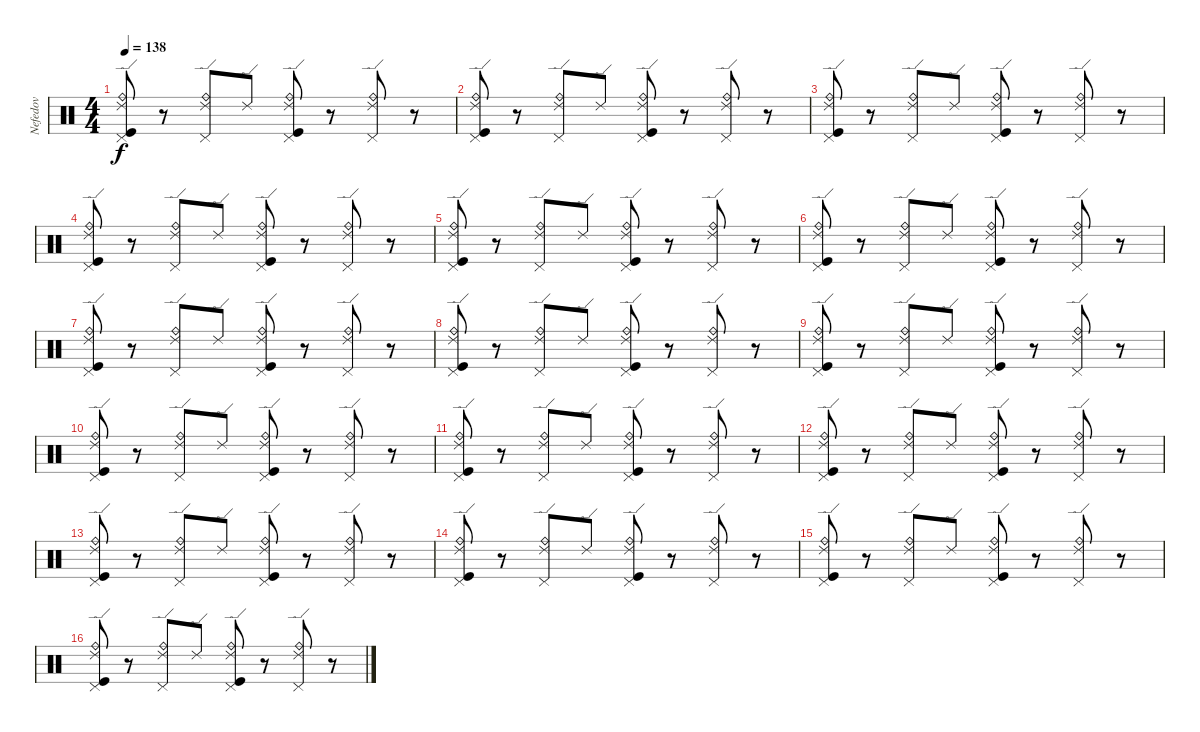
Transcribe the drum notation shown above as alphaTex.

\track ("Nefedov" "Nefedov") {instrument percussion}
\staff {score}
\articulation defaults
\ts (4 4)
\tempo 138
\clef neutral
\ks c
("Pedal Hi-Hat (hit)" "Ride (edge) 2" "Kick (hit)" "Ride (bell)").8{dy f} r.8 ("Pedal Hi-Hat (hit)" "Ride (edge) 2" "Ride (bell)").8 "Ride (edge) 2".8 ("Pedal Hi-Hat (hit)" "Ride (edge) 2" "Kick (hit)" "Ride (bell)").8 r.8 ("Pedal Hi-Hat (hit)" "Ride (edge) 2" "Ride (bell)").8 r.8 |
("Pedal Hi-Hat (hit)" "Ride (edge) 2" "Kick (hit)" "Ride (bell)").8 r.8 ("Pedal Hi-Hat (hit)" "Ride (edge) 2" "Ride (bell)").8 "Ride (edge) 2".8 ("Pedal Hi-Hat (hit)" "Ride (edge) 2" "Kick (hit)" "Ride (bell)").8 r.8 ("Pedal Hi-Hat (hit)" "Ride (edge) 2" "Ride (bell)").8 r.8 |
("Pedal Hi-Hat (hit)" "Ride (edge) 2" "Kick (hit)" "Ride (bell)").8 r.8 ("Pedal Hi-Hat (hit)" "Ride (edge) 2" "Ride (bell)").8 "Ride (edge) 2".8 ("Pedal Hi-Hat (hit)" "Ride (edge) 2" "Kick (hit)" "Ride (bell)").8 r.8 ("Pedal Hi-Hat (hit)" "Ride (edge) 2" "Ride (bell)").8 r.8 |
("Pedal Hi-Hat (hit)" "Ride (edge) 2" "Kick (hit)" "Ride (bell)").8 r.8 ("Pedal Hi-Hat (hit)" "Ride (edge) 2" "Ride (bell)").8 "Ride (edge) 2".8 ("Pedal Hi-Hat (hit)" "Ride (edge) 2" "Kick (hit)" "Ride (bell)").8 r.8 ("Pedal Hi-Hat (hit)" "Ride (edge) 2" "Ride (bell)").8 r.8 |
("Pedal Hi-Hat (hit)" "Ride (edge) 2" "Kick (hit)" "Ride (bell)").8 r.8 ("Pedal Hi-Hat (hit)" "Ride (edge) 2" "Ride (bell)").8 "Ride (edge) 2".8 ("Pedal Hi-Hat (hit)" "Ride (edge) 2" "Kick (hit)" "Ride (bell)").8 r.8 ("Pedal Hi-Hat (hit)" "Ride (edge) 2" "Ride (bell)").8 r.8 |
("Pedal Hi-Hat (hit)" "Ride (edge) 2" "Kick (hit)" "Ride (bell)").8 r.8 ("Pedal Hi-Hat (hit)" "Ride (edge) 2" "Ride (bell)").8 "Ride (edge) 2".8 ("Pedal Hi-Hat (hit)" "Ride (edge) 2" "Kick (hit)" "Ride (bell)").8 r.8 ("Pedal Hi-Hat (hit)" "Ride (edge) 2" "Ride (bell)").8 r.8 |
("Pedal Hi-Hat (hit)" "Ride (edge) 2" "Kick (hit)" "Ride (bell)").8 r.8 ("Pedal Hi-Hat (hit)" "Ride (edge) 2" "Ride (bell)").8 "Ride (edge) 2".8 ("Pedal Hi-Hat (hit)" "Ride (edge) 2" "Kick (hit)" "Ride (bell)").8 r.8 ("Pedal Hi-Hat (hit)" "Ride (edge) 2" "Ride (bell)").8 r.8 |
("Pedal Hi-Hat (hit)" "Ride (edge) 2" "Kick (hit)" "Ride (bell)").8 r.8 ("Pedal Hi-Hat (hit)" "Ride (edge) 2" "Ride (bell)").8 "Ride (edge) 2".8 ("Pedal Hi-Hat (hit)" "Ride (edge) 2" "Kick (hit)" "Ride (bell)").8 r.8 ("Pedal Hi-Hat (hit)" "Ride (edge) 2" "Ride (bell)").8 r.8 |
("Pedal Hi-Hat (hit)" "Ride (edge) 2" "Kick (hit)" "Ride (bell)").8 r.8 ("Pedal Hi-Hat (hit)" "Ride (edge) 2" "Ride (bell)").8 "Ride (edge) 2".8 ("Pedal Hi-Hat (hit)" "Ride (edge) 2" "Kick (hit)" "Ride (bell)").8 r.8 ("Pedal Hi-Hat (hit)" "Ride (edge) 2" "Ride (bell)").8 r.8 |
("Pedal Hi-Hat (hit)" "Ride (edge) 2" "Kick (hit)" "Ride (bell)").8 r.8 ("Pedal Hi-Hat (hit)" "Ride (edge) 2" "Ride (bell)").8 "Ride (edge) 2".8 ("Pedal Hi-Hat (hit)" "Ride (edge) 2" "Kick (hit)" "Ride (bell)").8 r.8 ("Pedal Hi-Hat (hit)" "Ride (edge) 2" "Ride (bell)").8 r.8 |
("Pedal Hi-Hat (hit)" "Ride (edge) 2" "Kick (hit)" "Ride (bell)").8 r.8 ("Pedal Hi-Hat (hit)" "Ride (edge) 2" "Ride (bell)").8 "Ride (edge) 2".8 ("Pedal Hi-Hat (hit)" "Ride (edge) 2" "Kick (hit)" "Ride (bell)").8 r.8 ("Pedal Hi-Hat (hit)" "Ride (edge) 2" "Ride (bell)").8 r.8 |
("Pedal Hi-Hat (hit)" "Ride (edge) 2" "Kick (hit)" "Ride (bell)").8 r.8 ("Pedal Hi-Hat (hit)" "Ride (edge) 2" "Ride (bell)").8 "Ride (edge) 2".8 ("Pedal Hi-Hat (hit)" "Ride (edge) 2" "Kick (hit)" "Ride (bell)").8 r.8 ("Pedal Hi-Hat (hit)" "Ride (edge) 2" "Ride (bell)").8 r.8 |
("Pedal Hi-Hat (hit)" "Ride (edge) 2" "Kick (hit)" "Ride (bell)").8 r.8 ("Pedal Hi-Hat (hit)" "Ride (edge) 2" "Ride (bell)").8 "Ride (edge) 2".8 ("Pedal Hi-Hat (hit)" "Ride (edge) 2" "Kick (hit)" "Ride (bell)").8 r.8 ("Pedal Hi-Hat (hit)" "Ride (edge) 2" "Ride (bell)").8 r.8 |
("Pedal Hi-Hat (hit)" "Ride (edge) 2" "Kick (hit)" "Ride (bell)").8 r.8 ("Pedal Hi-Hat (hit)" "Ride (edge) 2" "Ride (bell)").8 "Ride (edge) 2".8 ("Pedal Hi-Hat (hit)" "Ride (edge) 2" "Kick (hit)" "Ride (bell)").8 r.8 ("Pedal Hi-Hat (hit)" "Ride (edge) 2" "Ride (bell)").8 r.8 |
("Pedal Hi-Hat (hit)" "Ride (edge) 2" "Kick (hit)" "Ride (bell)").8 r.8 ("Pedal Hi-Hat (hit)" "Ride (edge) 2" "Ride (bell)").8 "Ride (edge) 2".8 ("Pedal Hi-Hat (hit)" "Ride (edge) 2" "Kick (hit)" "Ride (bell)").8 r.8 ("Pedal Hi-Hat (hit)" "Ride (edge) 2" "Ride (bell)").8 r.8 |
("Pedal Hi-Hat (hit)" "Ride (edge) 2" "Kick (hit)" "Ride (bell)").8 r.8 ("Pedal Hi-Hat (hit)" "Ride (edge) 2" "Ride (bell)").8 "Ride (edge) 2".8 ("Pedal Hi-Hat (hit)" "Ride (edge) 2" "Kick (hit)" "Ride (bell)").8 r.8 ("Pedal Hi-Hat (hit)" "Ride (edge) 2" "Ride (bell)").8 r.8
